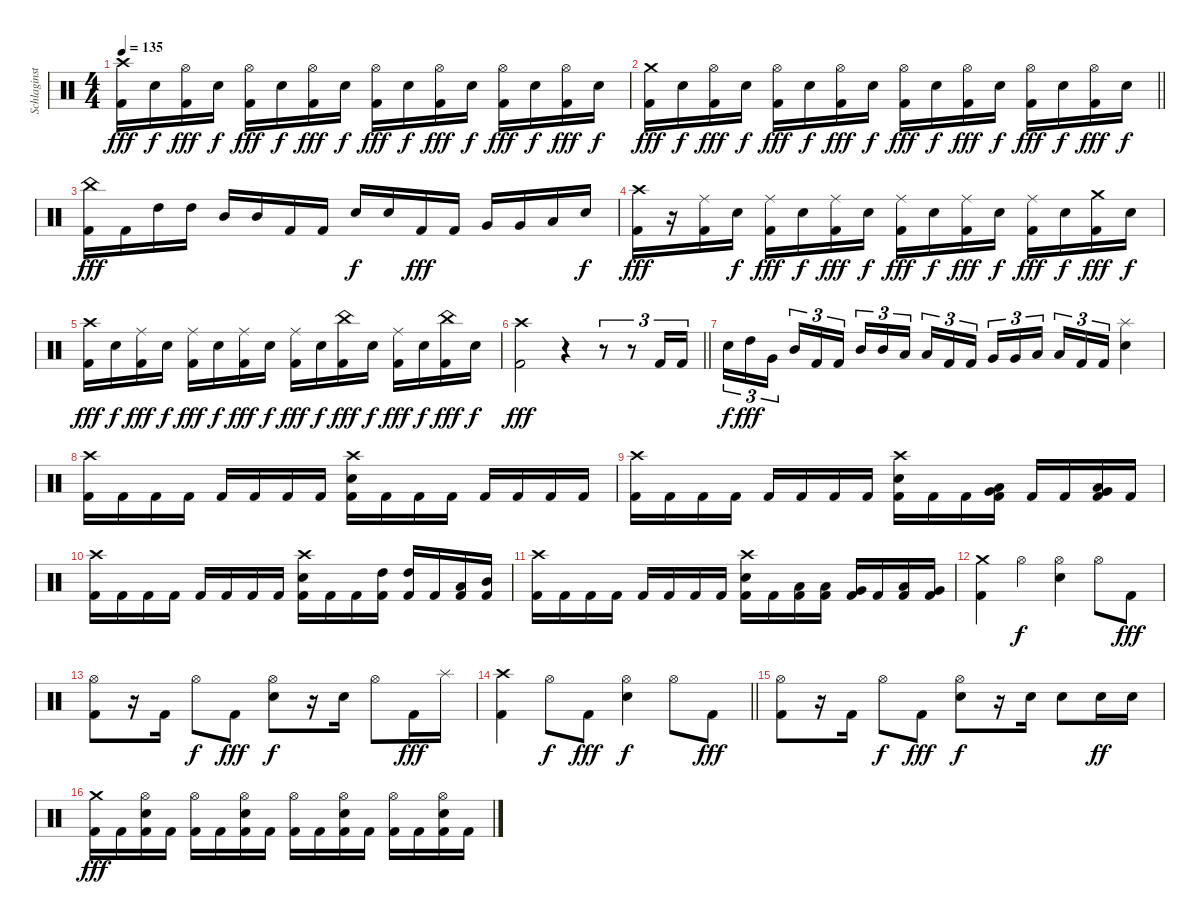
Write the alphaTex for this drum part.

\track ("Schlaginstrumente - Auswahl" "Schlaginst") {instrument percussion}
\staff {score}
\articulation defaults
\ts (4 4)
\tempo 135
\clef neutral
\ks c
("Crash high (hit)" "Kick (hit) 2").16{dy fff} "Snare (hit) 2".16{dy f} ("Hi-Hat (open)" "Kick (hit) 2").16{dy fff} "Snare (hit) 2".16{dy f} ("Hi-Hat (open)" "Kick (hit) 2").16{dy fff} "Snare (hit) 2".16{dy f} ("Hi-Hat (open)" "Kick (hit) 2").16{dy fff} "Snare (hit) 2".16{dy f} ("Hi-Hat (open)" "Kick (hit) 2").16{dy fff} "Snare (hit) 2".16{dy f} ("Hi-Hat (open)" "Kick (hit) 2").16{dy fff} "Snare (hit) 2".16{dy f} ("Hi-Hat (open)" "Kick (hit) 2").16{dy fff} "Snare (hit) 2".16{dy f} ("Hi-Hat (open)" "Kick (hit) 2").16{dy fff} "Snare (hit) 2".16{dy f} |
\barLineRight lightlight
("Crash medium (hit)" "Kick (hit) 2").16{dy fff} "Snare (hit) 2".16{dy f} ("Hi-Hat (open)" "Kick (hit) 2").16{dy fff} "Snare (hit) 2".16{dy f} ("Hi-Hat (open)" "Kick (hit) 2").16{dy fff} "Snare (hit) 2".16{dy f} ("Hi-Hat (open)" "Kick (hit) 2").16{dy fff} "Snare (hit) 2".16{dy f} ("Hi-Hat (open)" "Kick (hit) 2").16{dy fff} "Snare (hit) 2".16{dy f} ("Hi-Hat (open)" "Kick (hit) 2").16{dy fff} "Snare (hit) 2".16{dy f} ("Hi-Hat (open)" "Kick (hit) 2").16{dy fff} "Snare (hit) 2".16{dy f} ("Hi-Hat (open)" "Kick (hit) 2").16{dy fff} "Snare (hit) 2".16{dy f} |
("China (hit)" "Kick (hit) 2").16{dy fff} "Kick (hit) 2".16 "High Tom (hit)".16 "High Tom (hit)".16 "Mid Tom (hit)".16 "Mid Tom (hit)".16 "Kick (hit) 2".16 "Kick (hit) 2".16 "Snare (hit) 2".16{dy f} "Snare (hit) 2".16 "Kick (hit) 2".16{dy fff} "Kick (hit) 2".16 "Very Low Tom (hit)".16 "Very Low Tom (hit)".16 "Low Floor Tom (hit)".16 "Snare (hit) 2".16{dy f} |
("Crash high (hit)" "Kick (hit) 2").16{dy fff} r.16 ("Ride (middle)" "Kick (hit) 2").16 "Snare (hit) 2".16{dy f} ("Ride (middle)" "Kick (hit) 2").16{dy fff} "Snare (hit) 2".16{dy f} ("Ride (middle)" "Kick (hit) 2").16{dy fff} "Snare (hit) 2".16{dy f} ("Ride (middle)" "Kick (hit) 2").16{dy fff} "Snare (hit) 2".16{dy f} ("Ride (middle)" "Kick (hit) 2").16{dy fff} "Snare (hit) 2".16{dy f} ("Ride (middle)" "Kick (hit) 2").16{dy fff} "Snare (hit) 2".16{dy f} ("Crash medium (hit)" "Kick (hit) 2").16{dy fff} "Snare (hit) 2".16{dy f} |
("Crash high (hit)" "Kick (hit) 2").16{dy fff} "Snare (hit) 2".16{dy f} ("Ride (middle)" "Kick (hit) 2").16{dy fff} "Snare (hit) 2".16{dy f} ("Ride (middle)" "Kick (hit) 2").16{dy fff} "Snare (hit) 2".16{dy f} ("Ride (middle)" "Kick (hit) 2").16{dy fff} "Snare (hit) 2".16{dy f} ("Ride (middle)" "Kick (hit) 2").16{dy fff} "Snare (hit) 2".16{dy f} ("China (hit)" "Kick (hit) 2").16{dy fff} "Snare (hit) 2".16{dy f} ("Ride (middle)" "Kick (hit) 2").16{dy fff} "Snare (hit) 2".16{dy f} ("China (hit)" "Kick (hit) 2").16{dy fff} "Snare (hit) 2".16{dy f} |
\barLineRight lightlight
("Crash high (hit)" "Kick (hit) 2").2{dy fff} r.4 r.8{tu (3 2)} r.8{tu (3 2)} "Kick (hit) 2".16{tu (3 2)} "Kick (hit) 2".16{tu (3 2)} |
"Snare (hit) 2".16{tu (3 2) dy f} "High Tom (hit)".16{tu (3 2) dy fff} "Very Low Tom (hit)".16{tu (3 2) beam splitsecondary} "Mid Tom (hit)".16{tu (3 2)} "Kick (hit) 2".16{tu (3 2)} "Kick (hit) 2".16{tu (3 2)} "Mid Tom (hit)".16{tu (3 2)} "Mid Tom (hit)".16{tu (3 2)} "Low Tom (hit)".16{tu (3 2) beam splitsecondary} "Low Tom (hit)".16{tu (3 2)} "Kick (hit) 2".16{tu (3 2)} "Kick (hit) 2".16{tu (3 2)} "Very Low Tom (hit)".16{tu (3 2)} "Very Low Tom (hit)".16{tu (3 2)} "Low Floor Tom (hit)".16{tu (3 2) beam splitsecondary} "Low Floor Tom (hit)".16{tu (3 2)} "Kick (hit) 2".16{tu (3 2)} "Kick (hit) 2".16{tu (3 2)} ("Splash (hit)" "Snare (hit) 2").4 |
("Crash high (hit)" "Kick (hit) 2").16 "Kick (hit) 2".16 "Kick (hit) 2".16 "Kick (hit) 2".16 "Kick (hit) 2".16 "Kick (hit) 2".16 "Kick (hit) 2".16 "Kick (hit) 2".16 ("Crash high (hit)" "Snare (hit) 2" "Kick (hit) 2").16 "Kick (hit) 2".16 "Kick (hit) 2".16 "Kick (hit) 2".16 "Kick (hit) 2".16 "Kick (hit) 2".16 "Kick (hit) 2".16 "Kick (hit) 2".16 |
("Crash high (hit)" "Kick (hit) 2").16 "Kick (hit) 2".16 "Kick (hit) 2".16 "Kick (hit) 2".16 "Kick (hit) 2".16 "Kick (hit) 2".16 "Kick (hit) 2".16 "Kick (hit) 2".16 ("Crash high (hit)" "Snare (hit) 2" "Kick (hit) 2").16 "Kick (hit) 2".16 "Kick (hit) 2".16 ("Low Tom (hit)" "Very Low Tom (hit)" "Kick (hit) 2").16 "Kick (hit) 2".16 "Kick (hit) 2".16 ("Very Low Tom (hit)" "Low Floor Tom (hit)" "Kick (hit) 2").16 "Kick (hit) 2".16 |
("Crash high (hit)" "Kick (hit) 2").16 "Kick (hit) 2".16 "Kick (hit) 2".16 "Kick (hit) 2".16 "Kick (hit) 2".16 "Kick (hit) 2".16 "Kick (hit) 2".16 "Kick (hit) 2".16 ("Crash high (hit)" "Snare (hit) 2" "Kick (hit) 2").16 "Kick (hit) 2".16 "Kick (hit) 2".16 ("High Tom (hit)" "Kick (hit) 2").16 ("High Tom (hit)" "Kick (hit) 2").16 "Kick (hit) 2".16 ("Low Tom (hit)" "Kick (hit) 2").16 ("Mid Tom (hit)" "Kick (hit) 2").16 |
("Crash high (hit)" "Kick (hit) 2").16 "Kick (hit) 2".16 "Kick (hit) 2".16 "Kick (hit) 2".16 "Kick (hit) 2".16 "Kick (hit) 2".16 "Kick (hit) 2".16 "Kick (hit) 2".16 ("Crash high (hit)" "Snare (hit) 2" "Kick (hit) 2").16 "Kick (hit) 2".16 ("Low Tom (hit)" "Kick (hit) 2").16 ("Low Tom (hit)" "Kick (hit) 2").16 ("Very Low Tom (hit)" "Kick (hit) 2").16 "Kick (hit) 2".16 ("Low Floor Tom (hit)" "Kick (hit) 2").16 ("Very Low Tom (hit)" "Kick (hit) 2").16 |
("Crash medium (hit)" "Kick (hit) 2").4 "Hi-Hat (open)".4{dy f} ("Hi-Hat (open)" "Snare (hit) 2").4 "Hi-Hat (open)".8 "Kick (hit) 2".8{dy fff} |
("Hi-Hat (open)" "Kick (hit) 2").8 r.16 "Kick (hit) 2".16 "Hi-Hat (open)".8{dy f} "Kick (hit) 2".8{dy fff} ("Hi-Hat (open)" "Snare (hit) 2").8{dy f} r.16 "Snare (hit) 2".16 "Hi-Hat (open)".8 "Kick (hit) 2".16{dy fff} "Splash (hit)".16 |
\barLineRight lightlight
("Crash high (hit)" "Kick (hit) 2").4 "Hi-Hat (open)".8{dy f} "Kick (hit) 2".8{dy fff} ("Hi-Hat (open)" "Snare (hit) 2").4{dy f} "Hi-Hat (open)".8 "Kick (hit) 2".8{dy fff} |
("Hi-Hat (open)" "Kick (hit) 2").8 r.16 "Kick (hit) 2".16 "Hi-Hat (open)".8{dy f} "Kick (hit) 2".8{dy fff} ("Hi-Hat (open)" "Snare (hit) 2").8{dy f} r.16 "Snare (hit) 2".16 "Snare (hit) 2".8 "Snare (hit) 2".16{dy ff} "Snare (hit) 2".16 |
("Crash medium (hit)" "Kick (hit) 2").16{dy fff} "Kick (hit) 2".16 ("Hi-Hat (open)" "Snare (hit) 2" "Kick (hit) 2").16 "Kick (hit) 2".16 ("Hi-Hat (open)" "Kick (hit) 2").16 "Kick (hit) 2".16 ("Hi-Hat (open)" "Snare (hit) 2" "Kick (hit) 2").16 "Kick (hit) 2".16 ("Hi-Hat (open)" "Kick (hit) 2").16 "Kick (hit) 2".16 ("Hi-Hat (open)" "Snare (hit) 2" "Kick (hit) 2").16 "Kick (hit) 2".16 ("Hi-Hat (open)" "Kick (hit) 2").16 "Kick (hit) 2".16 ("Hi-Hat (open)" "Snare (hit) 2" "Kick (hit) 2").16 "Kick (hit) 2".16
